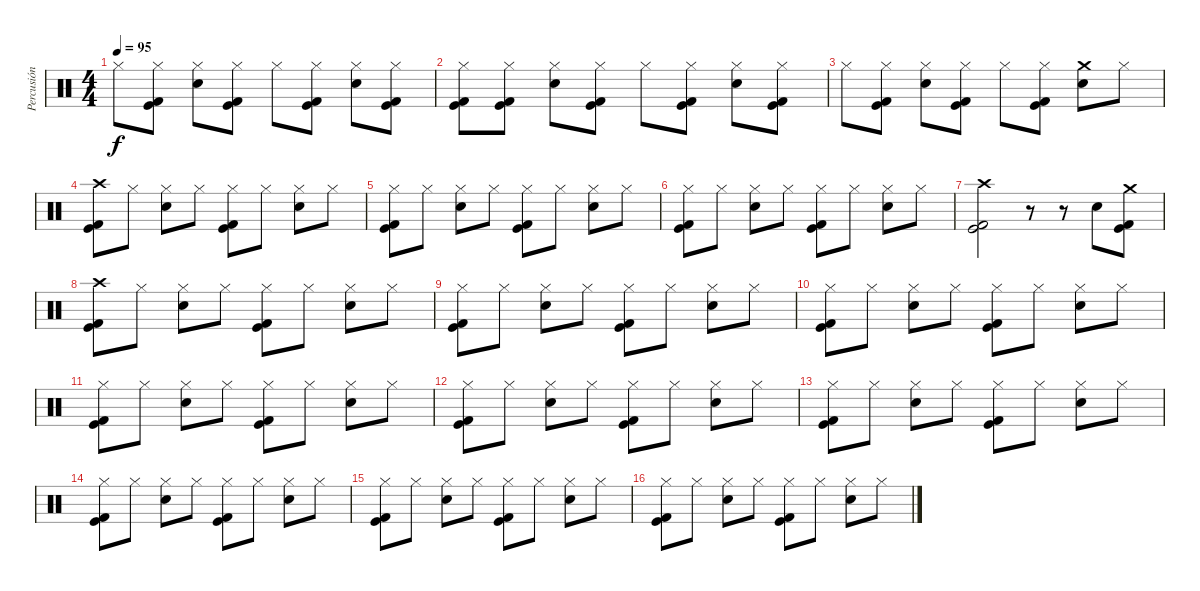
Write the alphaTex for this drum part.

\track ("Percusión" "Percusión") {instrument percussion}
\staff {score}
\articulation defaults
\ts (4 4)
\tempo 95
\clef neutral
\ks c "Hi-Hat (closed)".8{dy f}
("Kick (hit) 2" "Hi-Hat (closed)" "Kick (hit)").8 ("Snare (hit) 2" "Hi-Hat (closed)").8 ("Kick (hit) 2" "Hi-Hat (closed)" "Kick (hit)").8 "Hi-Hat (closed)".8 ("Kick (hit) 2" "Hi-Hat (closed)" "Kick (hit)").8 ("Snare (hit) 2" "Hi-Hat (closed)").8 ("Kick (hit) 2" "Hi-Hat (closed)" "Kick (hit)").8 |
("Kick (hit) 2" "Hi-Hat (closed)" "Kick (hit)").8 ("Kick (hit) 2" "Hi-Hat (closed)" "Kick (hit)").8 ("Snare (hit) 2" "Hi-Hat (closed)").8 ("Kick (hit) 2" "Hi-Hat (closed)" "Kick (hit)").8 "Hi-Hat (closed)".8 ("Kick (hit) 2" "Hi-Hat (closed)" "Kick (hit)").8 ("Snare (hit) 2" "Hi-Hat (closed)").8 ("Kick (hit) 2" "Hi-Hat (closed)" "Kick (hit)").8 |
"Hi-Hat (closed)".8 ("Kick (hit) 2" "Hi-Hat (closed)" "Kick (hit)").8 ("Snare (hit) 2" "Hi-Hat (closed)").8 ("Kick (hit) 2" "Hi-Hat (closed)" "Kick (hit)").8 "Hi-Hat (closed)".8 ("Kick (hit) 2" "Hi-Hat (closed)" "Kick (hit)").8 ("Snare (hit) 2" "Crash medium (hit)").8 "Hi-Hat (closed)".8 |
("Kick (hit) 2" "Crash high (hit)" "Kick (hit)").8 "Hi-Hat (closed)".8 ("Snare (hit) 2" "Hi-Hat (closed)").8 "Hi-Hat (closed)".8 ("Kick (hit) 2" "Hi-Hat (closed)" "Kick (hit)").8 "Hi-Hat (closed)".8 ("Snare (hit) 2" "Hi-Hat (closed)").8 "Hi-Hat (closed)".8 |
("Kick (hit) 2" "Hi-Hat (closed)" "Kick (hit)").8 "Hi-Hat (closed)".8 ("Snare (hit) 2" "Hi-Hat (closed)").8 "Hi-Hat (closed)".8 ("Kick (hit) 2" "Hi-Hat (closed)" "Kick (hit)").8 "Hi-Hat (closed)".8 ("Snare (hit) 2" "Hi-Hat (closed)").8 "Hi-Hat (closed)".8 |
("Kick (hit) 2" "Hi-Hat (closed)" "Kick (hit)").8 "Hi-Hat (closed)".8 ("Snare (hit) 2" "Hi-Hat (closed)").8 "Hi-Hat (closed)".8 ("Kick (hit) 2" "Hi-Hat (closed)" "Kick (hit)").8 "Hi-Hat (closed)".8 ("Snare (hit) 2" "Hi-Hat (closed)").8 "Hi-Hat (closed)".8 |
("Kick (hit) 2" "Crash high (hit)" "Kick (hit)").2 r.8 r.8 "Snare (hit) 2".8 ("Kick (hit) 2" "Crash medium (hit)" "Kick (hit)").8 |
("Kick (hit) 2" "Crash high (hit)" "Kick (hit)").8 "Hi-Hat (closed)".8 ("Snare (hit) 2" "Hi-Hat (closed)").8 "Hi-Hat (closed)".8 ("Kick (hit) 2" "Hi-Hat (closed)" "Kick (hit)").8 "Hi-Hat (closed)".8 ("Snare (hit) 2" "Hi-Hat (closed)").8 "Hi-Hat (closed)".8 |
("Kick (hit) 2" "Hi-Hat (closed)" "Kick (hit)").8 "Hi-Hat (closed)".8 ("Snare (hit) 2" "Hi-Hat (closed)").8 "Hi-Hat (closed)".8 ("Kick (hit) 2" "Hi-Hat (closed)" "Kick (hit)").8 "Hi-Hat (closed)".8 ("Snare (hit) 2" "Hi-Hat (closed)").8 "Hi-Hat (closed)".8 |
("Kick (hit) 2" "Hi-Hat (closed)" "Kick (hit)").8 "Hi-Hat (closed)".8 ("Snare (hit) 2" "Hi-Hat (closed)").8 "Hi-Hat (closed)".8 ("Kick (hit) 2" "Hi-Hat (closed)" "Kick (hit)").8 "Hi-Hat (closed)".8 ("Snare (hit) 2" "Hi-Hat (closed)").8 "Hi-Hat (closed)".8 |
("Kick (hit) 2" "Hi-Hat (closed)" "Kick (hit)").8 "Hi-Hat (closed)".8 ("Snare (hit) 2" "Hi-Hat (closed)").8 "Hi-Hat (closed)".8 ("Kick (hit) 2" "Hi-Hat (closed)" "Kick (hit)").8 "Hi-Hat (closed)".8 ("Snare (hit) 2" "Hi-Hat (closed)").8 "Hi-Hat (closed)".8 |
("Kick (hit) 2" "Hi-Hat (closed)" "Kick (hit)").8 "Hi-Hat (closed)".8 ("Snare (hit) 2" "Hi-Hat (closed)").8 "Hi-Hat (closed)".8 ("Kick (hit) 2" "Hi-Hat (closed)" "Kick (hit)").8 "Hi-Hat (closed)".8 ("Snare (hit) 2" "Hi-Hat (closed)").8 "Hi-Hat (closed)".8 |
("Kick (hit) 2" "Hi-Hat (closed)" "Kick (hit)").8 "Hi-Hat (closed)".8 ("Snare (hit) 2" "Hi-Hat (closed)").8 "Hi-Hat (closed)".8 ("Kick (hit) 2" "Hi-Hat (closed)" "Kick (hit)").8 "Hi-Hat (closed)".8 ("Snare (hit) 2" "Hi-Hat (closed)").8 "Hi-Hat (closed)".8 |
("Kick (hit) 2" "Hi-Hat (closed)" "Kick (hit)").8 "Hi-Hat (closed)".8 ("Snare (hit) 2" "Hi-Hat (closed)").8 "Hi-Hat (closed)".8 ("Kick (hit) 2" "Hi-Hat (closed)" "Kick (hit)").8 "Hi-Hat (closed)".8 ("Snare (hit) 2" "Hi-Hat (closed)").8 "Hi-Hat (closed)".8 |
("Kick (hit) 2" "Hi-Hat (closed)" "Kick (hit)").8 "Hi-Hat (closed)".8 ("Snare (hit) 2" "Hi-Hat (closed)").8 "Hi-Hat (closed)".8 ("Kick (hit) 2" "Hi-Hat (closed)" "Kick (hit)").8 "Hi-Hat (closed)".8 ("Snare (hit) 2" "Hi-Hat (closed)").8 "Hi-Hat (closed)".8 |
("Kick (hit) 2" "Hi-Hat (closed)" "Kick (hit)").8 "Hi-Hat (closed)".8 ("Snare (hit) 2" "Hi-Hat (closed)").8 "Hi-Hat (closed)".8 ("Kick (hit) 2" "Hi-Hat (closed)" "Kick (hit)").8 "Hi-Hat (closed)".8 ("Snare (hit) 2" "Hi-Hat (closed)").8 "Hi-Hat (closed)".8
